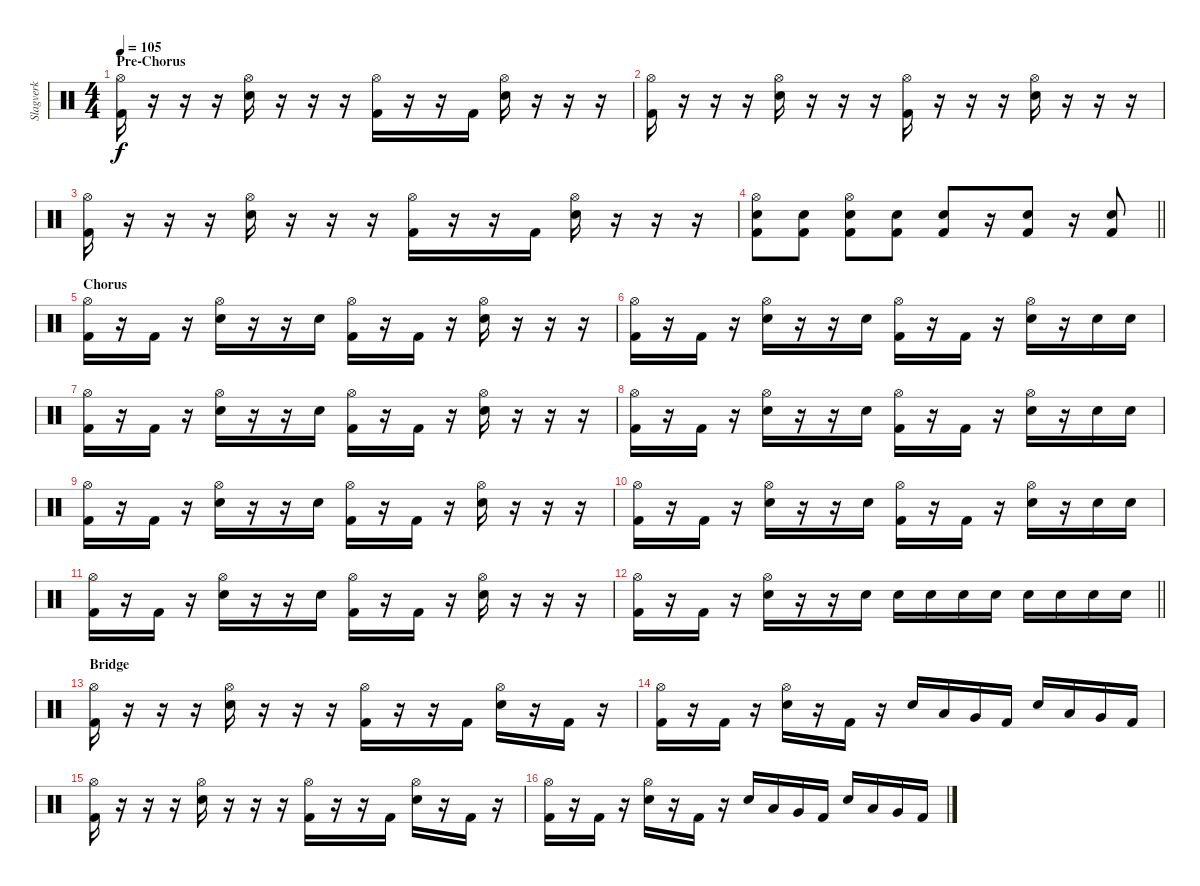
\track ("Slagverk" "Slagverk") {instrument percussion}
\staff {score}
\articulation defaults
\ts (4 4)
\section ("" "Pre-Chorus")
\tempo 105
\clef neutral
\ks c
("Hi-Hat (open)" "Kick (hit) 2").16{dy f} r.16 r.16 r.16 ("Hi-Hat (open)" "Electric Snare (hit)").16 r.16 r.16 r.16 ("Hi-Hat (open)" "Kick (hit) 2").16 r.16 r.16 "Kick (hit) 2".16 ("Hi-Hat (open)" "Electric Snare (hit)").16 r.16 r.16 r.16 |
("Hi-Hat (open)" "Kick (hit) 2").16 r.16 r.16 r.16 ("Hi-Hat (open)" "Electric Snare (hit)").16 r.16 r.16 r.16 ("Hi-Hat (open)" "Kick (hit) 2").16 r.16 r.16 r.16 ("Hi-Hat (open)" "Electric Snare (hit)").16 r.16 r.16 r.16 |
("Hi-Hat (open)" "Kick (hit) 2").16 r.16 r.16 r.16 ("Hi-Hat (open)" "Electric Snare (hit)").16 r.16 r.16 r.16 ("Hi-Hat (open)" "Kick (hit) 2").16 r.16 r.16 "Kick (hit) 2".16 ("Hi-Hat (open)" "Electric Snare (hit)").16 r.16 r.16 r.16 |
\barLineRight lightlight
("Hi-Hat (open)" "Electric Snare (hit)" "Kick (hit) 2").8 ("Electric Snare (hit)" "Kick (hit) 2").8 ("Hi-Hat (open)" "Electric Snare (hit)" "Kick (hit) 2").8 ("Electric Snare (hit)" "Kick (hit) 2").8 ("Electric Snare (hit)" "Kick (hit) 2").8 r.16 ("Electric Snare (hit)" "Kick (hit) 2").8 r.16 ("Electric Snare (hit)" "Kick (hit) 2").8 |
\section ("" "Chorus")
("Hi-Hat (open)" "Kick (hit) 2").16 r.16 "Kick (hit) 2".16 r.16 ("Hi-Hat (open)" "Electric Snare (hit)").16 r.16 r.16 "Electric Snare (hit)".16 ("Hi-Hat (open)" "Kick (hit) 2").16 r.16 "Kick (hit) 2".16 r.16 ("Hi-Hat (open)" "Electric Snare (hit)").16 r.16 r.16 r.16 |
("Hi-Hat (open)" "Kick (hit) 2").16 r.16 "Kick (hit) 2".16 r.16 ("Hi-Hat (open)" "Electric Snare (hit)").16 r.16 r.16 "Electric Snare (hit)".16 ("Hi-Hat (open)" "Kick (hit) 2").16 r.16 "Kick (hit) 2".16 r.16 ("Hi-Hat (open)" "Electric Snare (hit)").16 r.16 "Electric Snare (hit)".16 "Electric Snare (hit)".16 |
("Hi-Hat (open)" "Kick (hit) 2").16 r.16 "Kick (hit) 2".16 r.16 ("Hi-Hat (open)" "Electric Snare (hit)").16 r.16 r.16 "Electric Snare (hit)".16 ("Hi-Hat (open)" "Kick (hit) 2").16 r.16 "Kick (hit) 2".16 r.16 ("Hi-Hat (open)" "Electric Snare (hit)").16 r.16 r.16 r.16 |
("Hi-Hat (open)" "Kick (hit) 2").16 r.16 "Kick (hit) 2".16 r.16 ("Hi-Hat (open)" "Electric Snare (hit)").16 r.16 r.16 "Electric Snare (hit)".16 ("Hi-Hat (open)" "Kick (hit) 2").16 r.16 "Kick (hit) 2".16 r.16 ("Hi-Hat (open)" "Electric Snare (hit)").16 r.16 "Electric Snare (hit)".16 "Electric Snare (hit)".16 |
("Hi-Hat (open)" "Kick (hit) 2").16 r.16 "Kick (hit) 2".16 r.16 ("Hi-Hat (open)" "Electric Snare (hit)").16 r.16 r.16 "Electric Snare (hit)".16 ("Hi-Hat (open)" "Kick (hit) 2").16 r.16 "Kick (hit) 2".16 r.16 ("Hi-Hat (open)" "Electric Snare (hit)").16 r.16 r.16 r.16 |
("Hi-Hat (open)" "Kick (hit) 2").16 r.16 "Kick (hit) 2".16 r.16 ("Hi-Hat (open)" "Electric Snare (hit)").16 r.16 r.16 "Electric Snare (hit)".16 ("Hi-Hat (open)" "Kick (hit) 2").16 r.16 "Kick (hit) 2".16 r.16 ("Hi-Hat (open)" "Electric Snare (hit)").16 r.16 "Electric Snare (hit)".16 "Electric Snare (hit)".16 |
("Hi-Hat (open)" "Kick (hit) 2").16 r.16 "Kick (hit) 2".16 r.16 ("Hi-Hat (open)" "Electric Snare (hit)").16 r.16 r.16 "Electric Snare (hit)".16 ("Hi-Hat (open)" "Kick (hit) 2").16 r.16 "Kick (hit) 2".16 r.16 ("Hi-Hat (open)" "Electric Snare (hit)").16 r.16 r.16 r.16 |
\barLineRight lightlight
("Hi-Hat (open)" "Kick (hit) 2").16 r.16 "Kick (hit) 2".16 r.16 ("Hi-Hat (open)" "Electric Snare (hit)").16 r.16 r.16 "Electric Snare (hit)".16 "Electric Snare (hit)".16 "Electric Snare (hit)".16 "Electric Snare (hit)".16 "Electric Snare (hit)".16 "Electric Snare (hit)".16 "Electric Snare (hit)".16 "Electric Snare (hit)".16 "Electric Snare (hit)".16 |
\section ("" "Bridge")
("Hi-Hat (open)" "Kick (hit) 2").16 r.16 r.16 r.16 ("Hi-Hat (open)" "Electric Snare (hit)").16 r.16 r.16 r.16 ("Hi-Hat (open)" "Kick (hit) 2").16 r.16 r.16 "Kick (hit) 2".16 ("Hi-Hat (open)" "Electric Snare (hit)").16 r.16 "Kick (hit) 2".16 r.16 |
("Hi-Hat (open)" "Kick (hit) 2").16 r.16 "Kick (hit) 2".16 r.16 ("Hi-Hat (open)" "Electric Snare (hit)").16 r.16 "Kick (hit) 2".16 r.16 "Electric Snare (hit)".16 "Low Tom (hit)".16 "Very Low Tom (hit)".16 "Kick (hit) 2".16 "Electric Snare (hit)".16 "Low Tom (hit)".16 "Very Low Tom (hit)".16 "Kick (hit) 2".16 |
("Hi-Hat (open)" "Kick (hit) 2").16 r.16 r.16 r.16 ("Hi-Hat (open)" "Electric Snare (hit)").16 r.16 r.16 r.16 ("Hi-Hat (open)" "Kick (hit) 2").16 r.16 r.16 "Kick (hit) 2".16 ("Hi-Hat (open)" "Electric Snare (hit)").16 r.16 "Kick (hit) 2".16 r.16 |
("Hi-Hat (open)" "Kick (hit) 2").16 r.16 "Kick (hit) 2".16 r.16 ("Hi-Hat (open)" "Electric Snare (hit)").16 r.16 "Kick (hit) 2".16 r.16 "Electric Snare (hit)".16 "Low Tom (hit)".16 "Very Low Tom (hit)".16 "Kick (hit) 2".16 "Electric Snare (hit)".16 "Low Tom (hit)".16 "Very Low Tom (hit)".16 "Kick (hit) 2".16
